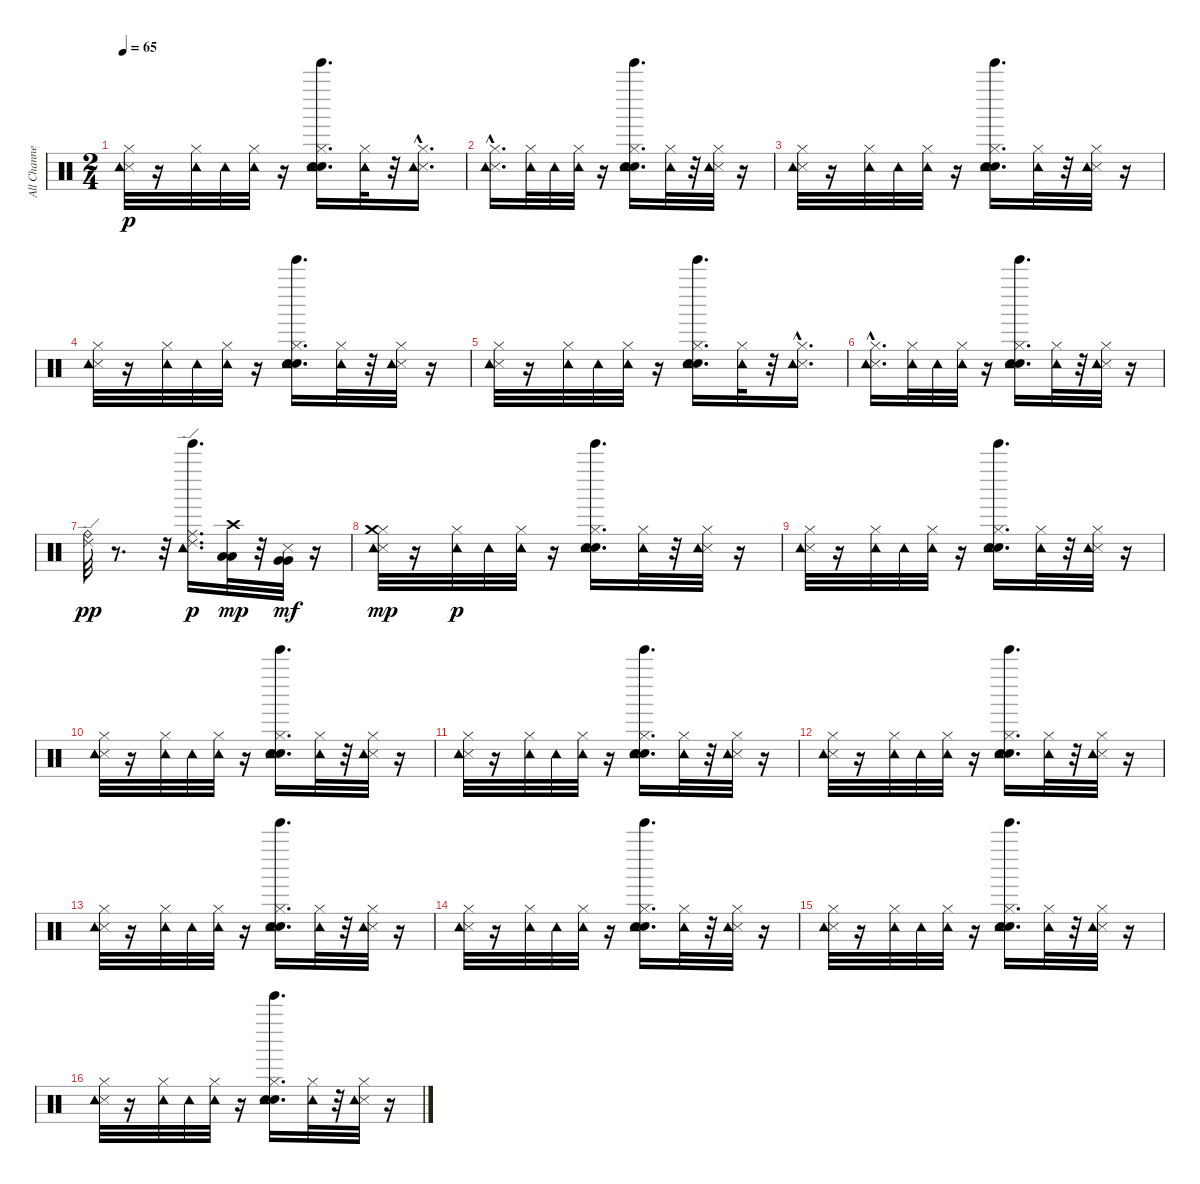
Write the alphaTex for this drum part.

\track ("All Channels*merged" "All Channe") {instrument percussion}
\staff {score}
\articulation defaults
\ts (2 4)
\tempo 65
\clef neutral
\ks c
("Metronome (hit)" "Hi-Hat (closed)" "Tambourine (hit)").32{dy p} r.16 ("Hi-Hat (closed)" "Tambourine (hit)").32 "Tambourine (hit)".32 ("Hi-Hat (closed)" "Tambourine (hit)").32 r.16 ("Metronome (bell)" "Electric Snare (hit)" "Hi-Hat (closed)" "Tambourine (hit)" "Tinkle Bell (hit)").16{d} ("Hi-Hat (closed)" "Tambourine (hit)").32 r.32 ("Metronome (hit)" "Hi-Hat (closed)"{hac} "Tambourine (hit)").16{d} |
("Metronome (hit)" "Hi-Hat (closed)"{hac} "Tambourine (hit)").16{d} ("Hi-Hat (closed)" "Tambourine (hit)").32 "Tambourine (hit)".32 ("Hi-Hat (closed)" "Tambourine (hit)").32 r.16 ("Metronome (bell)" "Electric Snare (hit)" "Hi-Hat (closed)" "Tambourine (hit)" "Tinkle Bell (hit)").16{d} ("Hi-Hat (closed)" "Tambourine (hit)").32 r.32 ("Metronome (hit)" "Hi-Hat (closed)" "Tambourine (hit)").32 r.16 |
("Metronome (hit)" "Hi-Hat (closed)" "Tambourine (hit)").32 r.16 ("Hi-Hat (closed)" "Tambourine (hit)").32 "Tambourine (hit)".32 ("Hi-Hat (closed)" "Tambourine (hit)").32 r.16 ("Metronome (bell)" "Electric Snare (hit)" "Hi-Hat (closed)" "Tambourine (hit)" "Tinkle Bell (hit)").16{d} ("Hi-Hat (closed)" "Tambourine (hit)").32 r.32 ("Metronome (hit)" "Hi-Hat (closed)" "Tambourine (hit)").32 r.16 |
("Metronome (hit)" "Hi-Hat (closed)" "Tambourine (hit)").32 r.16 ("Hi-Hat (closed)" "Tambourine (hit)").32 "Tambourine (hit)".32 ("Hi-Hat (closed)" "Tambourine (hit)").32 r.16 ("Metronome (bell)" "Electric Snare (hit)" "Hi-Hat (closed)" "Tambourine (hit)" "Tinkle Bell (hit)").16{d} ("Hi-Hat (closed)" "Tambourine (hit)").32 r.32 ("Metronome (hit)" "Hi-Hat (closed)" "Tambourine (hit)").32 r.16 |
("Metronome (hit)" "Hi-Hat (closed)" "Tambourine (hit)").32 r.16 ("Hi-Hat (closed)" "Tambourine (hit)").32 "Tambourine (hit)".32 ("Hi-Hat (closed)" "Tambourine (hit)").32 r.16 ("Metronome (bell)" "Electric Snare (hit)" "Hi-Hat (closed)" "Tambourine (hit)" "Tinkle Bell (hit)").16{d} ("Hi-Hat (closed)" "Tambourine (hit)").32 r.32 ("Metronome (hit)" "Hi-Hat (closed)"{hac} "Tambourine (hit)").16{d} |
("Metronome (hit)" "Hi-Hat (closed)"{hac} "Tambourine (hit)").16{d} ("Hi-Hat (closed)" "Tambourine (hit)").32 "Tambourine (hit)".32 ("Hi-Hat (closed)" "Tambourine (hit)").32 r.16 ("Metronome (bell)" "Electric Snare (hit)" "Hi-Hat (closed)" "Tambourine (hit)" "Tinkle Bell (hit)").16{d} ("Hi-Hat (closed)" "Tambourine (hit)").32 r.32 ("Metronome (hit)" "Hi-Hat (closed)" "Tambourine (hit)").32 r.16 |
("Ride (bell)" "Ride (edge) 2").32{dy pp} r.8{d} r.32 ("Ride (middle)" "Tambourine (hit)" "Ride (edge) 2" "Tinkle Bell (hit)").16{d dy p} ("Low Tom (hit)" "Low Tom (hit)" "Crash high (hit)").32{dy mp} r.32 ("Metronome (hit)" "Very Low Tom (hit)" "Very Low Tom (hit)").32{dy mf} r.16 |
("Metronome (hit)" "Hi-Hat (closed)" "Tambourine (hit)" "Crash medium (hit)").32{dy mp} r.16 ("Hi-Hat (closed)" "Tambourine (hit)").32{dy p} "Tambourine (hit)".32 ("Hi-Hat (closed)" "Tambourine (hit)").32 r.16 ("Metronome (bell)" "Electric Snare (hit)" "Hi-Hat (closed)" "Tambourine (hit)" "Tinkle Bell (hit)").16{d} ("Hi-Hat (closed)" "Tambourine (hit)").32 r.32 ("Metronome (hit)" "Hi-Hat (closed)" "Tambourine (hit)").32 r.16 |
("Metronome (hit)" "Hi-Hat (closed)" "Tambourine (hit)").32 r.16 ("Hi-Hat (closed)" "Tambourine (hit)").32 "Tambourine (hit)".32 ("Hi-Hat (closed)" "Tambourine (hit)").32 r.16 ("Metronome (bell)" "Electric Snare (hit)" "Hi-Hat (closed)" "Tambourine (hit)" "Tinkle Bell (hit)").16{d} ("Hi-Hat (closed)" "Tambourine (hit)").32 r.32 ("Metronome (hit)" "Hi-Hat (closed)" "Tambourine (hit)").32 r.16 |
("Metronome (hit)" "Hi-Hat (closed)" "Tambourine (hit)").32 r.16 ("Hi-Hat (closed)" "Tambourine (hit)").32 "Tambourine (hit)".32 ("Hi-Hat (closed)" "Tambourine (hit)").32 r.16 ("Metronome (bell)" "Electric Snare (hit)" "Hi-Hat (closed)" "Tambourine (hit)" "Tinkle Bell (hit)").16{d} ("Hi-Hat (closed)" "Tambourine (hit)").32 r.32 ("Metronome (hit)" "Hi-Hat (closed)" "Tambourine (hit)").32 r.16 |
("Metronome (hit)" "Hi-Hat (closed)" "Tambourine (hit)").32 r.16 ("Hi-Hat (closed)" "Tambourine (hit)").32 "Tambourine (hit)".32 ("Hi-Hat (closed)" "Tambourine (hit)").32 r.16 ("Metronome (bell)" "Electric Snare (hit)" "Hi-Hat (closed)" "Tambourine (hit)" "Tinkle Bell (hit)").16{d} ("Hi-Hat (closed)" "Tambourine (hit)").32 r.32 ("Metronome (hit)" "Hi-Hat (closed)" "Tambourine (hit)").32 r.16 |
("Metronome (hit)" "Hi-Hat (closed)" "Tambourine (hit)").32 r.16 ("Hi-Hat (closed)" "Tambourine (hit)").32 "Tambourine (hit)".32 ("Hi-Hat (closed)" "Tambourine (hit)").32 r.16 ("Metronome (bell)" "Electric Snare (hit)" "Hi-Hat (closed)" "Tambourine (hit)" "Tinkle Bell (hit)").16{d} ("Hi-Hat (closed)" "Tambourine (hit)").32 r.32 ("Metronome (hit)" "Hi-Hat (closed)" "Tambourine (hit)").32 r.16 |
("Metronome (hit)" "Hi-Hat (closed)" "Tambourine (hit)").32 r.16 ("Hi-Hat (closed)" "Tambourine (hit)").32 "Tambourine (hit)".32 ("Hi-Hat (closed)" "Tambourine (hit)").32 r.16 ("Metronome (bell)" "Electric Snare (hit)" "Hi-Hat (closed)" "Tambourine (hit)" "Tinkle Bell (hit)").16{d} ("Hi-Hat (closed)" "Tambourine (hit)").32 r.32 ("Metronome (hit)" "Hi-Hat (closed)" "Tambourine (hit)").32 r.16 |
("Metronome (hit)" "Hi-Hat (closed)" "Tambourine (hit)").32 r.16 ("Hi-Hat (closed)" "Tambourine (hit)").32 "Tambourine (hit)".32 ("Hi-Hat (closed)" "Tambourine (hit)").32 r.16 ("Metronome (bell)" "Electric Snare (hit)" "Hi-Hat (closed)" "Tambourine (hit)" "Tinkle Bell (hit)").16{d} ("Hi-Hat (closed)" "Tambourine (hit)").32 r.32 ("Metronome (hit)" "Hi-Hat (closed)" "Tambourine (hit)").32 r.16 |
("Metronome (hit)" "Hi-Hat (closed)" "Tambourine (hit)").32 r.16 ("Hi-Hat (closed)" "Tambourine (hit)").32 "Tambourine (hit)".32 ("Hi-Hat (closed)" "Tambourine (hit)").32 r.16 ("Metronome (bell)" "Electric Snare (hit)" "Hi-Hat (closed)" "Tambourine (hit)" "Tinkle Bell (hit)").16{d} ("Hi-Hat (closed)" "Tambourine (hit)").32 r.32 ("Metronome (hit)" "Hi-Hat (closed)" "Tambourine (hit)").32 r.16 |
("Metronome (hit)" "Hi-Hat (closed)" "Tambourine (hit)").32 r.16 ("Hi-Hat (closed)" "Tambourine (hit)").32 "Tambourine (hit)".32 ("Hi-Hat (closed)" "Tambourine (hit)").32 r.16 ("Metronome (bell)" "Electric Snare (hit)" "Hi-Hat (closed)" "Tambourine (hit)" "Tinkle Bell (hit)").16{d} ("Hi-Hat (closed)" "Tambourine (hit)").32 r.32 ("Metronome (hit)" "Hi-Hat (closed)" "Tambourine (hit)").32 r.16
